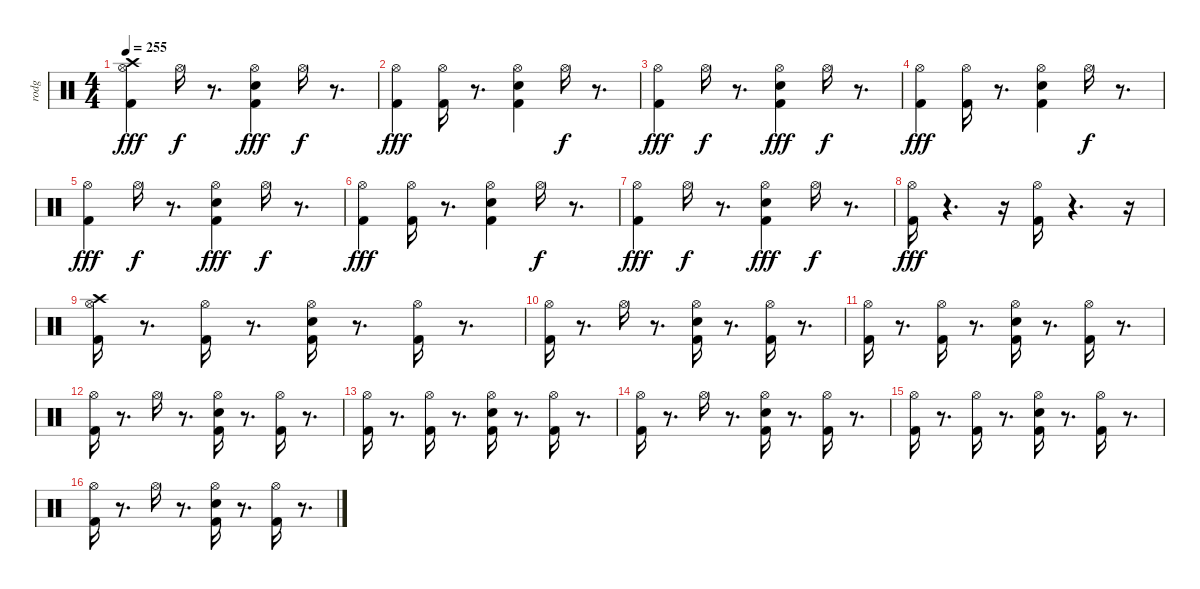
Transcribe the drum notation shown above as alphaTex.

\track ("rodg" "rodg") {instrument percussion}
\staff {score}
\articulation defaults
\ts (4 4)
\tempo 255
\clef neutral
\ks c
("Hi-Hat (open)" "Kick (hit) 2" "Crash high (hit)").4{dy fff} "Hi-Hat (open)".16{dy f} r.8{d} ("Hi-Hat (open)" "Electric Snare (hit)" "Kick (hit) 2").4{dy fff} "Hi-Hat (open)".16{dy f} r.8{d} |
("Hi-Hat (open)" "Kick (hit) 2").4{dy fff} ("Hi-Hat (open)" "Kick (hit) 2").16 r.8{d} ("Hi-Hat (open)" "Electric Snare (hit)" "Kick (hit) 2").4 "Hi-Hat (open)".16{dy f} r.8{d} |
("Kick (hit) 2" "Hi-Hat (open)").4{dy fff} "Hi-Hat (open)".16{dy f} r.8{d} ("Hi-Hat (open)" "Electric Snare (hit)" "Kick (hit) 2").4{dy fff} "Hi-Hat (open)".16{dy f} r.8{d} |
("Hi-Hat (open)" "Kick (hit) 2").4{dy fff} ("Hi-Hat (open)" "Kick (hit) 2").16 r.8{d} ("Hi-Hat (open)" "Electric Snare (hit)" "Kick (hit) 2").4 "Hi-Hat (open)".16{dy f} r.8{d} |
("Kick (hit) 2" "Hi-Hat (open)").4{dy fff} "Hi-Hat (open)".16{dy f} r.8{d} ("Hi-Hat (open)" "Electric Snare (hit)" "Kick (hit) 2").4{dy fff} "Hi-Hat (open)".16{dy f} r.8{d} |
("Hi-Hat (open)" "Kick (hit) 2").4{dy fff} ("Hi-Hat (open)" "Kick (hit) 2").16 r.8{d} ("Hi-Hat (open)" "Electric Snare (hit)" "Kick (hit) 2").4 "Hi-Hat (open)".16{dy f} r.8{d} |
("Kick (hit) 2" "Hi-Hat (open)").4{dy fff} "Hi-Hat (open)".16{dy f} r.8{d} ("Hi-Hat (open)" "Electric Snare (hit)" "Kick (hit) 2").4{dy fff} "Hi-Hat (open)".16{dy f} r.8{d} |
("Kick (hit) 2" "Hi-Hat (open)").16{dy fff} r.4{d} r.16 ("Hi-Hat (open)" "Kick (hit) 2").16 r.4{d} r.16 |
("Kick (hit) 2" "Hi-Hat (open)" "Crash high (hit)").16 r.8{d} ("Kick (hit) 2" "Hi-Hat (open)").16 r.8{d} ("Kick (hit) 2" "Electric Snare (hit)" "Hi-Hat (open)").16 r.8{d} ("Kick (hit) 2" "Hi-Hat (open)").16 r.8{d} |
("Kick (hit) 2" "Hi-Hat (open)").16 r.8{d} "Hi-Hat (open)".16 r.8{d} ("Kick (hit) 2" "Electric Snare (hit)" "Hi-Hat (open)").16 r.8{d} ("Kick (hit) 2" "Hi-Hat (open)").16 r.8{d} |
("Hi-Hat (open)" "Kick (hit) 2").16 r.8{d} ("Kick (hit) 2" "Hi-Hat (open)").16 r.8{d} ("Kick (hit) 2" "Electric Snare (hit)" "Hi-Hat (open)").16 r.8{d} ("Kick (hit) 2" "Hi-Hat (open)").16 r.8{d} |
("Kick (hit) 2" "Hi-Hat (open)").16 r.8{d} "Hi-Hat (open)".16 r.8{d} ("Kick (hit) 2" "Electric Snare (hit)" "Hi-Hat (open)").16 r.8{d} ("Kick (hit) 2" "Hi-Hat (open)").16 r.8{d} |
("Hi-Hat (open)" "Kick (hit) 2").16 r.8{d} ("Kick (hit) 2" "Hi-Hat (open)").16 r.8{d} ("Kick (hit) 2" "Electric Snare (hit)" "Hi-Hat (open)").16 r.8{d} ("Kick (hit) 2" "Hi-Hat (open)").16 r.8{d} |
("Kick (hit) 2" "Hi-Hat (open)").16 r.8{d} "Hi-Hat (open)".16 r.8{d} ("Kick (hit) 2" "Electric Snare (hit)" "Hi-Hat (open)").16 r.8{d} ("Kick (hit) 2" "Hi-Hat (open)").16 r.8{d} |
("Hi-Hat (open)" "Kick (hit) 2").16 r.8{d} ("Kick (hit) 2" "Hi-Hat (open)").16 r.8{d} ("Kick (hit) 2" "Electric Snare (hit)" "Hi-Hat (open)").16 r.8{d} ("Kick (hit) 2" "Hi-Hat (open)").16 r.8{d} |
("Kick (hit) 2" "Hi-Hat (open)").16 r.8{d} "Hi-Hat (open)".16 r.8{d} ("Kick (hit) 2" "Electric Snare (hit)" "Hi-Hat (open)").16 r.8{d} ("Kick (hit) 2" "Hi-Hat (open)").16 r.8{d}
